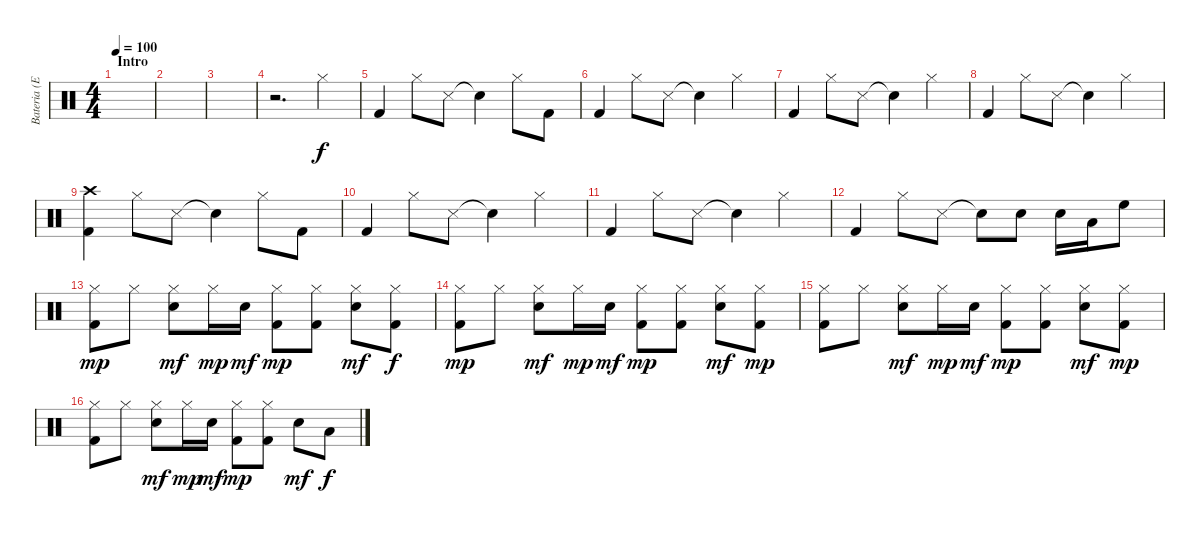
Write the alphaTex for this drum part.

\track ("Bateria (Eduardo)" "Bateria (E") {instrument percussion}
\staff {score}
\articulation defaults
\ts (4 4)
\section ("" "Intro")
\tempo 100
\clef neutral
\ks c
|
|
|
r.2{d} "Hi-Hat (closed)".4 |
"Kick (hit) 2".4 "Hi-Hat (closed)".8 "Snare (side stick) 3".8 "Snare (hit)"{t}.4 "Hi-Hat (closed)".8 "Kick (hit) 2".8 |
"Kick (hit) 2".4 "Hi-Hat (closed)".8 "Snare (side stick) 3".8 "Snare (hit)"{t}.4 "Hi-Hat (closed)".4 |
"Kick (hit) 2".4 "Hi-Hat (closed)".8 "Snare (side stick) 3".8 "Snare (hit)"{t}.4 "Hi-Hat (closed)".4 |
"Kick (hit) 2".4 "Hi-Hat (closed)".8 "Snare (side stick) 3".8 "Snare (hit)"{t}.4 "Hi-Hat (closed)".4 |
("Crash high (hit)" "Kick (hit) 2").4 "Hi-Hat (closed)".8 "Snare (side stick) 3".8 "Snare (hit)"{t}.4 "Hi-Hat (closed)".8 "Kick (hit) 2".8 |
"Kick (hit) 2".4 "Hi-Hat (closed)".8 "Snare (side stick) 3".8 "Snare (hit)"{t}.4 "Hi-Hat (closed)".4 |
"Kick (hit) 2".4 "Hi-Hat (closed)".8 "Snare (side stick) 3".8 "Snare (hit)"{t}.4 "Hi-Hat (closed)".4 |
"Kick (hit) 2".4 "Hi-Hat (closed)".8 "Snare (side stick) 3".8 "Snare (hit)"{t}.8 "Electric Snare (hit)".8 "Electric Snare (hit)".16 "Low Tom (hit)".16 "High Floor Tom (hit)".8 |
("Hi-Hat (closed)" "Kick (hit) 2").8{dy mp volume 11} "Hi-Hat (closed)".8 ("Hi-Hat (closed)" "Electric Snare (hit)").8{dy mf} "Hi-Hat (closed)".16{dy mp} "Electric Snare (hit)".16{dy mf} ("Hi-Hat (closed)" "Kick (hit) 2").8{dy mp} ("Hi-Hat (closed)" "Kick (hit) 2").8 ("Hi-Hat (closed)" "Electric Snare (hit)").8{dy mf} ("Hi-Hat (closed)" "Kick (hit) 2").8{dy f} |
("Hi-Hat (closed)" "Kick (hit) 2").8{dy mp} "Hi-Hat (closed)".8 ("Hi-Hat (closed)" "Electric Snare (hit)").8{dy mf} "Hi-Hat (closed)".16{dy mp} "Electric Snare (hit)".16{dy mf} ("Hi-Hat (closed)" "Kick (hit) 2").8{dy mp} ("Hi-Hat (closed)" "Kick (hit) 2").8 ("Hi-Hat (closed)" "Electric Snare (hit)").8{dy mf} ("Hi-Hat (closed)" "Kick (hit) 2").8{dy mp} |
("Hi-Hat (closed)" "Kick (hit) 2").8 "Hi-Hat (closed)".8 ("Hi-Hat (closed)" "Electric Snare (hit)").8{dy mf} "Hi-Hat (closed)".16{dy mp} "Electric Snare (hit)".16{dy mf} ("Hi-Hat (closed)" "Kick (hit) 2").8{dy mp} ("Hi-Hat (closed)" "Kick (hit) 2").8 ("Hi-Hat (closed)" "Electric Snare (hit)").8{dy mf} ("Hi-Hat (closed)" "Kick (hit) 2").8{dy mp} |
("Hi-Hat (closed)" "Kick (hit) 2").8 "Hi-Hat (closed)".8 ("Hi-Hat (closed)" "Electric Snare (hit)").8{dy mf} "Hi-Hat (closed)".16{dy mp} "Electric Snare (hit)".16{dy mf} ("Hi-Hat (closed)" "Kick (hit) 2").8{dy mp} ("Hi-Hat (closed)" "Kick (hit) 2").8 "Electric Snare (hit)".8{dy mf} "Low Tom (hit)".8{dy f}
